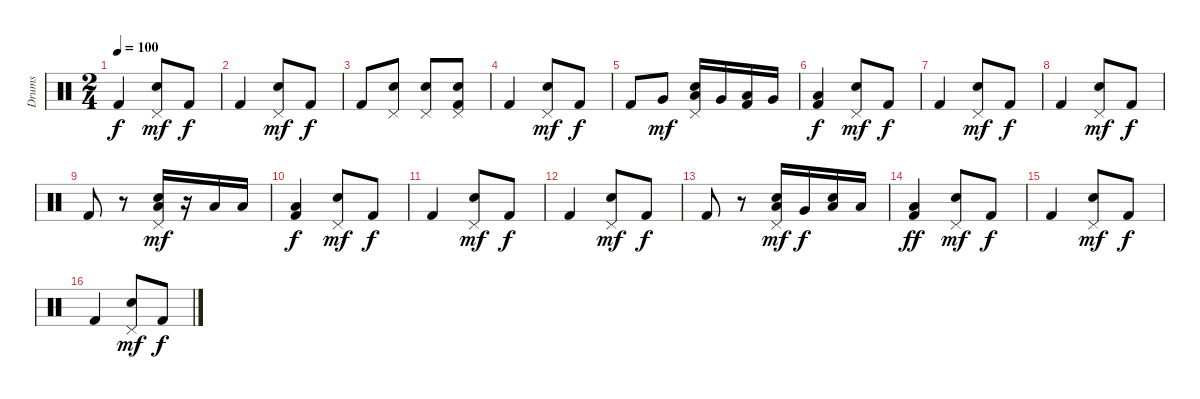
\track ("Drums" "Drums") {instrument percussion}
\staff {score}
\articulation defaults
\ts (2 4)
\tempo 100
\clef neutral
\ks c "Kick (hit) 2".4{dy f}
("Pedal Hi-Hat (hit)" "Electric Snare (hit)").8{dy mf} "Kick (hit) 2".8{dy f} |
"Kick (hit) 2".4 ("Pedal Hi-Hat (hit)" "Electric Snare (hit)").8{dy mf} "Kick (hit) 2".8{dy f} |
"Kick (hit) 2".8 ("Pedal Hi-Hat (hit)" "Electric Snare (hit)").8 ("Pedal Hi-Hat (hit)" "Electric Snare (hit)").8 ("Pedal Hi-Hat (hit)" "Electric Snare (hit)" "Kick (hit) 2").8 |
"Kick (hit) 2".4 ("Pedal Hi-Hat (hit)" "Electric Snare (hit)").8{dy mf} "Kick (hit) 2".8{dy f} |
"Kick (hit) 2".8 "Very Low Tom (hit)".8{dy mf} ("Pedal Hi-Hat (hit)" "Low Floor Tom (hit)" "Electric Snare (hit)").16 "Very Low Tom (hit)".16 ("Low Floor Tom (hit)" "Kick (hit) 2").16 "Very Low Tom (hit)".16 |
("Low Floor Tom (hit)" "Kick (hit) 2").4{dy f} ("Pedal Hi-Hat (hit)" "Electric Snare (hit)").8{dy mf} "Kick (hit) 2".8{dy f} |
"Kick (hit) 2".4 ("Pedal Hi-Hat (hit)" "Electric Snare (hit)").8{dy mf} "Kick (hit) 2".8{dy f} |
"Kick (hit) 2".4 ("Pedal Hi-Hat (hit)" "Electric Snare (hit)").8{dy mf} "Kick (hit) 2".8{dy f} |
"Kick (hit) 2".8 r.8 ("Pedal Hi-Hat (hit)" "Low Floor Tom (hit)" "Electric Snare (hit)").16{dy mf} r.16 "Low Floor Tom (hit)".16 "Low Floor Tom (hit)".16 |
("Low Floor Tom (hit)" "Kick (hit) 2").4{dy f} ("Pedal Hi-Hat (hit)" "Electric Snare (hit)").8{dy mf} "Kick (hit) 2".8{dy f} |
"Kick (hit) 2".4 ("Pedal Hi-Hat (hit)" "Electric Snare (hit)").8{dy mf} "Kick (hit) 2".8{dy f} |
"Kick (hit) 2".4 ("Pedal Hi-Hat (hit)" "Electric Snare (hit)").8{dy mf} "Kick (hit) 2".8{dy f} |
"Kick (hit) 2".8 r.8 ("Pedal Hi-Hat (hit)" "Low Floor Tom (hit)" "Electric Snare (hit)").16{dy mf} "Very Low Tom (hit)".16{dy f} ("Low Floor Tom (hit)" "Electric Snare (hit)").16 "Low Floor Tom (hit)".16 |
("Low Floor Tom (hit)" "Kick (hit) 2").4{dy ff} ("Pedal Hi-Hat (hit)" "Electric Snare (hit)").8{dy mf} "Kick (hit) 2".8{dy f} |
"Kick (hit) 2".4 ("Pedal Hi-Hat (hit)" "Electric Snare (hit)").8{dy mf} "Kick (hit) 2".8{dy f} |
"Kick (hit) 2".4 ("Pedal Hi-Hat (hit)" "Electric Snare (hit)").8{dy mf} "Kick (hit) 2".8{dy f}
